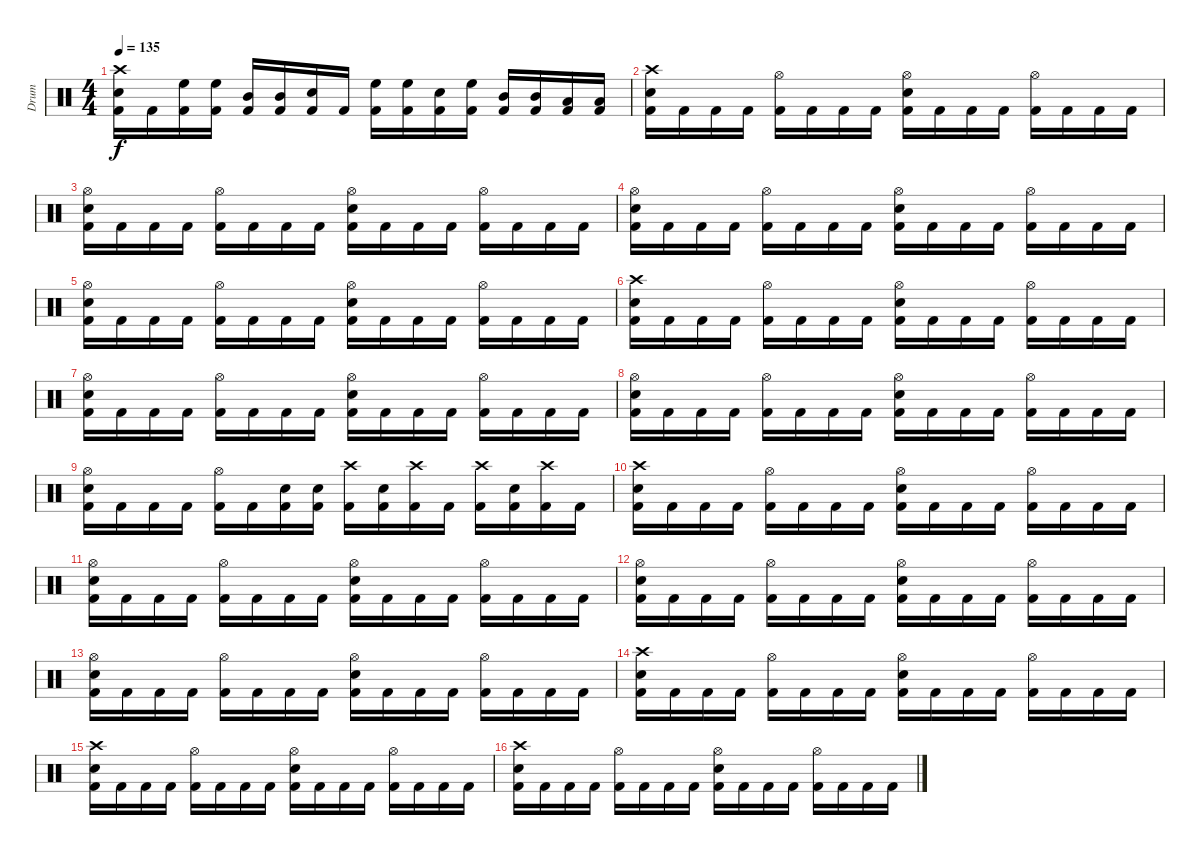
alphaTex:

\track ("Drum" "Drum") {instrument percussion}
\staff {score}
\articulation defaults
\ts (4 4)
\tempo 135
\clef neutral
\ks c
("Crash high (hit)" "Snare (hit) 2" "Kick (hit) 2").16{dy f} "Kick (hit) 2".16 ("High Floor Tom (hit)" "Kick (hit) 2").16 ("High Floor Tom (hit)" "Kick (hit) 2").16 ("Mid Tom (hit)" "Kick (hit) 2").16 ("Mid Tom (hit)" "Kick (hit) 2").16 ("Snare (hit) 2" "Kick (hit) 2").16 "Kick (hit) 2".16 ("High Floor Tom (hit)" "Kick (hit) 2").16 ("High Floor Tom (hit)" "Kick (hit) 2").16 ("Snare (hit) 2" "Kick (hit) 2").16 ("High Floor Tom (hit)" "Kick (hit) 2").16 ("Mid Tom (hit)" "Kick (hit) 2").16 ("Mid Tom (hit)" "Kick (hit) 2").16 ("Low Tom (hit)" "Kick (hit) 2").16 ("Low Tom (hit)" "Kick (hit) 2").16 |
("Crash high (hit)" "Snare (hit) 2" "Kick (hit) 2").16 "Kick (hit) 2".16 "Kick (hit) 2".16 "Kick (hit) 2".16 ("Hi-Hat (open)" "Kick (hit) 2").16 "Kick (hit) 2".16 "Kick (hit) 2".16 "Kick (hit) 2".16 ("Hi-Hat (open)" "Snare (hit) 2" "Kick (hit) 2").16 "Kick (hit) 2".16 "Kick (hit) 2".16 "Kick (hit) 2".16 ("Hi-Hat (open)" "Kick (hit) 2").16 "Kick (hit) 2".16 "Kick (hit) 2".16 "Kick (hit) 2".16 |
("Hi-Hat (open)" "Snare (hit) 2" "Kick (hit) 2").16 "Kick (hit) 2".16 "Kick (hit) 2".16 "Kick (hit) 2".16 ("Hi-Hat (open)" "Kick (hit) 2").16 "Kick (hit) 2".16 "Kick (hit) 2".16 "Kick (hit) 2".16 ("Hi-Hat (open)" "Snare (hit) 2" "Kick (hit) 2").16 "Kick (hit) 2".16 "Kick (hit) 2".16 "Kick (hit) 2".16 ("Hi-Hat (open)" "Kick (hit) 2").16 "Kick (hit) 2".16 "Kick (hit) 2".16 "Kick (hit) 2".16 |
("Hi-Hat (open)" "Snare (hit) 2" "Kick (hit) 2").16 "Kick (hit) 2".16 "Kick (hit) 2".16 "Kick (hit) 2".16 ("Hi-Hat (open)" "Kick (hit) 2").16 "Kick (hit) 2".16 "Kick (hit) 2".16 "Kick (hit) 2".16 ("Hi-Hat (open)" "Snare (hit) 2" "Kick (hit) 2").16 "Kick (hit) 2".16 "Kick (hit) 2".16 "Kick (hit) 2".16 ("Hi-Hat (open)" "Kick (hit) 2").16 "Kick (hit) 2".16 "Kick (hit) 2".16 "Kick (hit) 2".16 |
("Hi-Hat (open)" "Snare (hit) 2" "Kick (hit) 2").16 "Kick (hit) 2".16 "Kick (hit) 2".16 "Kick (hit) 2".16 ("Hi-Hat (open)" "Kick (hit) 2").16 "Kick (hit) 2".16 "Kick (hit) 2".16 "Kick (hit) 2".16 ("Hi-Hat (open)" "Snare (hit) 2" "Kick (hit) 2").16 "Kick (hit) 2".16 "Kick (hit) 2".16 "Kick (hit) 2".16 ("Hi-Hat (open)" "Kick (hit) 2").16 "Kick (hit) 2".16 "Kick (hit) 2".16 "Kick (hit) 2".16 |
("Crash high (hit)" "Snare (hit) 2" "Kick (hit) 2").16 "Kick (hit) 2".16 "Kick (hit) 2".16 "Kick (hit) 2".16 ("Hi-Hat (open)" "Kick (hit) 2").16 "Kick (hit) 2".16 "Kick (hit) 2".16 "Kick (hit) 2".16 ("Hi-Hat (open)" "Snare (hit) 2" "Kick (hit) 2").16 "Kick (hit) 2".16 "Kick (hit) 2".16 "Kick (hit) 2".16 ("Hi-Hat (open)" "Kick (hit) 2").16 "Kick (hit) 2".16 "Kick (hit) 2".16 "Kick (hit) 2".16 |
("Hi-Hat (open)" "Snare (hit) 2" "Kick (hit) 2").16 "Kick (hit) 2".16 "Kick (hit) 2".16 "Kick (hit) 2".16 ("Hi-Hat (open)" "Kick (hit) 2").16 "Kick (hit) 2".16 "Kick (hit) 2".16 "Kick (hit) 2".16 ("Hi-Hat (open)" "Snare (hit) 2" "Kick (hit) 2").16 "Kick (hit) 2".16 "Kick (hit) 2".16 "Kick (hit) 2".16 ("Hi-Hat (open)" "Kick (hit) 2").16 "Kick (hit) 2".16 "Kick (hit) 2".16 "Kick (hit) 2".16 |
("Hi-Hat (open)" "Snare (hit) 2" "Kick (hit) 2").16 "Kick (hit) 2".16 "Kick (hit) 2".16 "Kick (hit) 2".16 ("Hi-Hat (open)" "Kick (hit) 2").16 "Kick (hit) 2".16 "Kick (hit) 2".16 "Kick (hit) 2".16 ("Hi-Hat (open)" "Snare (hit) 2" "Kick (hit) 2").16 "Kick (hit) 2".16 "Kick (hit) 2".16 "Kick (hit) 2".16 ("Hi-Hat (open)" "Kick (hit) 2").16 "Kick (hit) 2".16 "Kick (hit) 2".16 "Kick (hit) 2".16 |
("Hi-Hat (open)" "Snare (hit) 2" "Kick (hit) 2").16 "Kick (hit) 2".16 "Kick (hit) 2".16 "Kick (hit) 2".16 ("Hi-Hat (open)" "Kick (hit) 2").16 "Kick (hit) 2".16 ("Snare (hit) 2" "Kick (hit) 2").16 ("Snare (hit) 2" "Kick (hit) 2").16 ("Crash high (hit)" "Kick (hit) 2").16 ("Snare (hit) 2" "Kick (hit) 2").16 ("Crash high (hit)" "Kick (hit) 2").16 "Kick (hit) 2".16 ("Crash high (hit)" "Kick (hit) 2").16 ("Snare (hit) 2" "Kick (hit) 2").16 ("Crash high (hit)" "Kick (hit) 2").16 "Kick (hit) 2".16 |
("Crash high (hit)" "Snare (hit) 2" "Kick (hit) 2").16 "Kick (hit) 2".16 "Kick (hit) 2".16 "Kick (hit) 2".16 ("Hi-Hat (open)" "Kick (hit) 2").16 "Kick (hit) 2".16 "Kick (hit) 2".16 "Kick (hit) 2".16 ("Hi-Hat (open)" "Snare (hit) 2" "Kick (hit) 2").16 "Kick (hit) 2".16 "Kick (hit) 2".16 "Kick (hit) 2".16 ("Hi-Hat (open)" "Kick (hit) 2").16 "Kick (hit) 2".16 "Kick (hit) 2".16 "Kick (hit) 2".16 |
("Hi-Hat (open)" "Snare (hit) 2" "Kick (hit) 2").16 "Kick (hit) 2".16 "Kick (hit) 2".16 "Kick (hit) 2".16 ("Hi-Hat (open)" "Kick (hit) 2").16 "Kick (hit) 2".16 "Kick (hit) 2".16 "Kick (hit) 2".16 ("Hi-Hat (open)" "Snare (hit) 2" "Kick (hit) 2").16 "Kick (hit) 2".16 "Kick (hit) 2".16 "Kick (hit) 2".16 ("Hi-Hat (open)" "Kick (hit) 2").16 "Kick (hit) 2".16 "Kick (hit) 2".16 "Kick (hit) 2".16 |
("Hi-Hat (open)" "Snare (hit) 2" "Kick (hit) 2").16 "Kick (hit) 2".16 "Kick (hit) 2".16 "Kick (hit) 2".16 ("Hi-Hat (open)" "Kick (hit) 2").16 "Kick (hit) 2".16 "Kick (hit) 2".16 "Kick (hit) 2".16 ("Hi-Hat (open)" "Snare (hit) 2" "Kick (hit) 2").16 "Kick (hit) 2".16 "Kick (hit) 2".16 "Kick (hit) 2".16 ("Hi-Hat (open)" "Kick (hit) 2").16 "Kick (hit) 2".16 "Kick (hit) 2".16 "Kick (hit) 2".16 |
("Hi-Hat (open)" "Snare (hit) 2" "Kick (hit) 2").16 "Kick (hit) 2".16 "Kick (hit) 2".16 "Kick (hit) 2".16 ("Hi-Hat (open)" "Kick (hit) 2").16 "Kick (hit) 2".16 "Kick (hit) 2".16 "Kick (hit) 2".16 ("Hi-Hat (open)" "Snare (hit) 2" "Kick (hit) 2").16 "Kick (hit) 2".16 "Kick (hit) 2".16 "Kick (hit) 2".16 ("Hi-Hat (open)" "Kick (hit) 2").16 "Kick (hit) 2".16 "Kick (hit) 2".16 "Kick (hit) 2".16 |
("Crash high (hit)" "Snare (hit) 2" "Kick (hit) 2").16 "Kick (hit) 2".16 "Kick (hit) 2".16 "Kick (hit) 2".16 ("Hi-Hat (open)" "Kick (hit) 2").16 "Kick (hit) 2".16 "Kick (hit) 2".16 "Kick (hit) 2".16 ("Hi-Hat (open)" "Snare (hit) 2" "Kick (hit) 2").16 "Kick (hit) 2".16 "Kick (hit) 2".16 "Kick (hit) 2".16 ("Hi-Hat (open)" "Kick (hit) 2").16 "Kick (hit) 2".16 "Kick (hit) 2".16 "Kick (hit) 2".16 |
("Crash high (hit)" "Snare (hit) 2" "Kick (hit) 2").16 "Kick (hit) 2".16 "Kick (hit) 2".16 "Kick (hit) 2".16 ("Hi-Hat (open)" "Kick (hit) 2").16 "Kick (hit) 2".16 "Kick (hit) 2".16 "Kick (hit) 2".16 ("Hi-Hat (open)" "Snare (hit) 2" "Kick (hit) 2").16 "Kick (hit) 2".16 "Kick (hit) 2".16 "Kick (hit) 2".16 ("Hi-Hat (open)" "Kick (hit) 2").16 "Kick (hit) 2".16 "Kick (hit) 2".16 "Kick (hit) 2".16 |
("Crash high (hit)" "Snare (hit) 2" "Kick (hit) 2").16 "Kick (hit) 2".16 "Kick (hit) 2".16 "Kick (hit) 2".16 ("Hi-Hat (open)" "Kick (hit) 2").16 "Kick (hit) 2".16 "Kick (hit) 2".16 "Kick (hit) 2".16 ("Hi-Hat (open)" "Snare (hit) 2" "Kick (hit) 2").16 "Kick (hit) 2".16 "Kick (hit) 2".16 "Kick (hit) 2".16 ("Hi-Hat (open)" "Kick (hit) 2").16 "Kick (hit) 2".16 "Kick (hit) 2".16 "Kick (hit) 2".16
